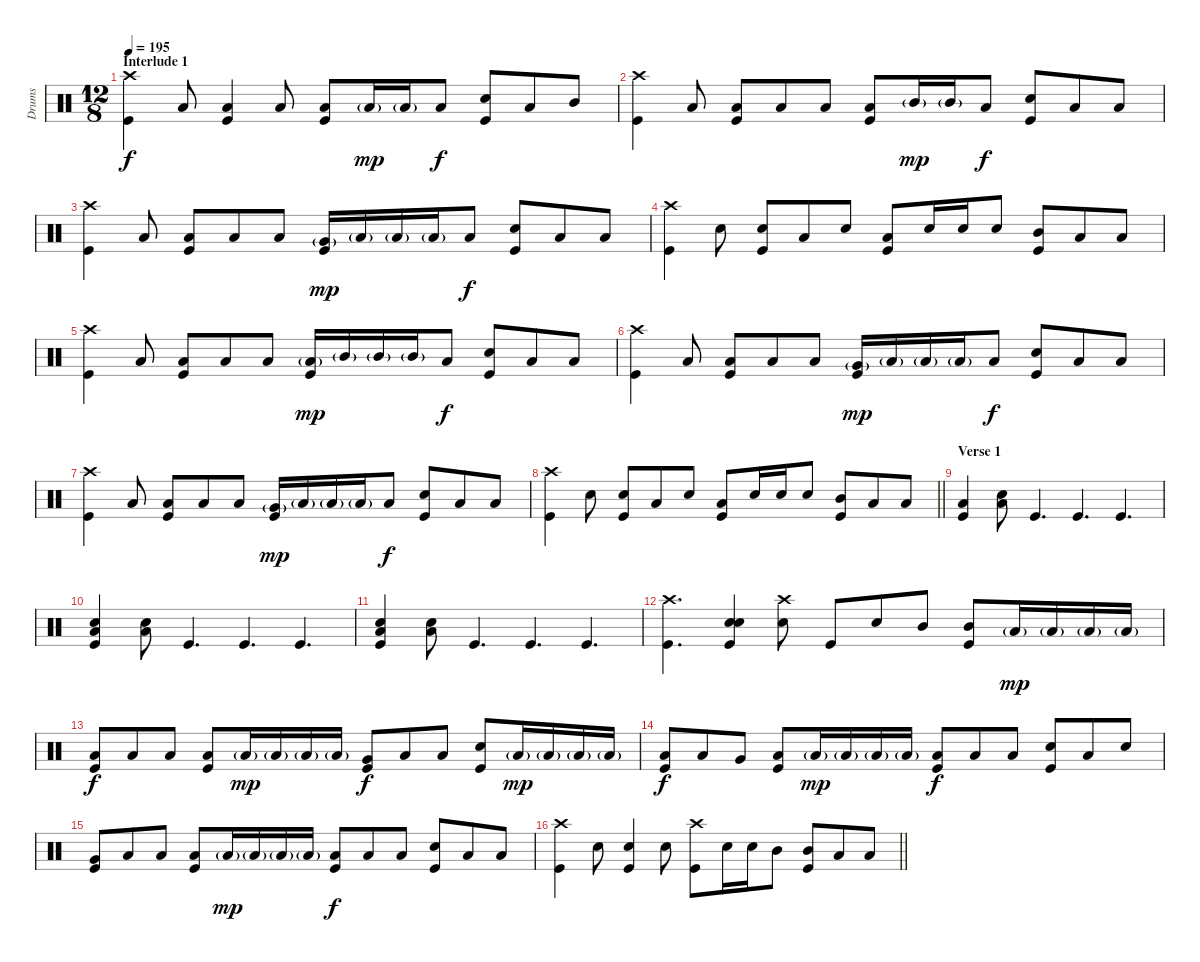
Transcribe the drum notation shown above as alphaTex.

\track ("Drums" "Drums") {instrument percussion}
\staff {score}
\articulation defaults
\ts (12 8)
\section ("" "Interlude 1")
\tempo 195
\clef neutral
\ks c
("Crash high (hit)" "Kick (hit)").4{dy f} "Low Tom (hit)".8 ("Low Tom (hit)" "Kick (hit)").4 "Low Tom (hit)".8 ("Low Tom (hit)" "Kick (hit)").8 "Low Tom (hit)"{g}.16{dy mp} "Low Tom (hit)"{g}.16 "Low Tom (hit)".8{dy f} ("Snare (hit) 2" "Kick (hit)").8 "Low Tom (hit)".8 "Mid Tom (hit)".8 |
("Crash high (hit)" "Kick (hit)").4 "Low Tom (hit)".8 ("Low Tom (hit)" "Kick (hit)").8 "Low Tom (hit)".8 "Low Tom (hit)".8 ("Low Tom (hit)" "Kick (hit)").8 "Mid Tom (hit)"{g}.16{dy mp} "Mid Tom (hit)"{g}.16 "Low Tom (hit)".8{dy f} ("Snare (hit) 2" "Kick (hit)").8 "Low Tom (hit)".8 "Low Tom (hit)".8 |
("Crash high (hit)" "Kick (hit)").4 "Low Tom (hit)".8 ("Low Tom (hit)" "Kick (hit)").8 "Low Tom (hit)".8 "Low Tom (hit)".8 ("Very Low Tom (hit)"{g} "Kick (hit)").16{dy mp} "Low Tom (hit)"{g}.16 "Low Tom (hit)"{g}.16 "Low Tom (hit)"{g}.16 "Low Tom (hit)".8{dy f} ("Snare (hit) 2" "Kick (hit)").8 "Low Tom (hit)".8 "Low Tom (hit)".8 |
("Crash high (hit)" "Kick (hit)").4 "Snare (hit) 2".8 ("Snare (hit) 2" "Kick (hit)").8 "Low Tom (hit)".8 "Snare (hit) 2".8 ("Low Tom (hit)" "Kick (hit)").8 "Snare (hit) 2".16 "Snare (hit) 2".16 "Snare (hit) 2".8 ("Mid Tom (hit)" "Kick (hit)").8 "Low Tom (hit)".8 "Low Tom (hit)".8 |
("Crash high (hit)" "Kick (hit)").4 "Low Tom (hit)".8 ("Low Tom (hit)" "Kick (hit)").8 "Low Tom (hit)".8 "Low Tom (hit)".8 ("Low Tom (hit)"{g} "Kick (hit)").16{dy mp} "Mid Tom (hit)"{g}.16 "Mid Tom (hit)"{g}.16 "Mid Tom (hit)"{g}.16 "Low Tom (hit)".8{dy f} ("Snare (hit) 2" "Kick (hit)").8 "Low Tom (hit)".8 "Low Tom (hit)".8 |
("Crash high (hit)" "Kick (hit)").4 "Low Tom (hit)".8 ("Low Tom (hit)" "Kick (hit)").8 "Low Tom (hit)".8 "Low Tom (hit)".8 ("Very Low Tom (hit)"{g} "Kick (hit)").16{dy mp} "Low Tom (hit)"{g}.16 "Low Tom (hit)"{g}.16 "Low Tom (hit)"{g}.16 "Low Tom (hit)".8{dy f} ("Snare (hit) 2" "Kick (hit)").8 "Low Tom (hit)".8 "Low Tom (hit)".8 |
("Crash high (hit)" "Kick (hit)").4 "Low Tom (hit)".8 ("Low Tom (hit)" "Kick (hit)").8 "Low Tom (hit)".8 "Low Tom (hit)".8 ("Very Low Tom (hit)"{g} "Kick (hit)").16{dy mp} "Low Tom (hit)"{g}.16 "Low Tom (hit)"{g}.16 "Low Tom (hit)"{g}.16 "Low Tom (hit)".8{dy f} ("Snare (hit) 2" "Kick (hit)").8 "Low Tom (hit)".8 "Low Tom (hit)".8 |
\barLineRight lightlight
("Crash high (hit)" "Kick (hit)").4 "Snare (hit) 2".8 ("Snare (hit) 2" "Kick (hit)").8 "Low Tom (hit)".8 "Snare (hit) 2".8 ("Low Tom (hit)" "Kick (hit)").8 "Snare (hit) 2".16 "Snare (hit) 2".16 "Snare (hit) 2".8 ("Mid Tom (hit)" "Kick (hit)").8 "Low Tom (hit)".8 "Low Tom (hit)".8 |
\section ("" "Verse 1")
("Low Tom (hit)" "Kick (hit)").4 ("Low Tom (hit)" "Snare (hit) 2").8 "Kick (hit)".4{d} "Kick (hit)".4{d} "Kick (hit)".4{d} |
("Low Tom (hit)" "Snare (hit) 2" "Kick (hit)").4 ("Low Tom (hit)" "Snare (hit) 2").8 "Kick (hit)".4{d} "Kick (hit)".4{d} "Kick (hit)".4{d} |
("Low Tom (hit)" "Snare (hit) 2" "Kick (hit)").4 ("Low Tom (hit)" "Snare (hit) 2").8 "Kick (hit)".4{d} "Kick (hit)".4{d} "Kick (hit)".4{d} |
("Crash high (hit)" "Kick (hit)").4{d} ("Snare (hit) 2" "Snare (hit) 2" "Kick (hit)").4 ("Crash high (hit)" "Snare (hit) 2").8 "Kick (hit)".8 "Snare (hit) 2".8 "Mid Tom (hit)".8 ("Mid Tom (hit)" "Kick (hit)").8 "Low Tom (hit)"{g}.16{dy mp} "Low Tom (hit)"{g}.16 "Low Tom (hit)"{g}.16 "Low Tom (hit)"{g}.16 |
("Low Tom (hit)" "Kick (hit)").8{dy f} "Low Tom (hit)".8 "Low Tom (hit)".8 ("Low Tom (hit)" "Kick (hit)").8 "Low Tom (hit)"{g}.16{dy mp} "Low Tom (hit)"{g}.16 "Low Tom (hit)"{g}.16 "Low Tom (hit)"{g}.16 ("Very Low Tom (hit)" "Kick (hit)").8{dy f} "Low Tom (hit)".8 "Low Tom (hit)".8 ("Snare (hit) 2" "Kick (hit)").8 "Low Tom (hit)"{g}.16{dy mp} "Low Tom (hit)"{g}.16 "Low Tom (hit)"{g}.16 "Low Tom (hit)"{g}.16 |
("Low Tom (hit)" "Kick (hit)").8{dy f} "Low Tom (hit)".8 "Very Low Tom (hit)".8 ("Low Tom (hit)" "Kick (hit)").8 "Low Tom (hit)"{g}.16{dy mp} "Low Tom (hit)"{g}.16 "Low Tom (hit)"{g}.16 "Low Tom (hit)"{g}.16 ("Low Tom (hit)" "Kick (hit)").8{dy f} "Low Tom (hit)".8 "Low Tom (hit)".8 ("Snare (hit) 2" "Kick (hit)").8 "Low Tom (hit)".8 "Snare (hit) 2".8 |
("Very Low Tom (hit)" "Kick (hit)").8 "Low Tom (hit)".8 "Low Tom (hit)".8 ("Low Tom (hit)" "Kick (hit)").8 "Low Tom (hit)"{g}.16{dy mp} "Low Tom (hit)"{g}.16 "Low Tom (hit)"{g}.16 "Low Tom (hit)"{g}.16 ("Low Tom (hit)" "Kick (hit)").8{dy f} "Low Tom (hit)".8 "Low Tom (hit)".8 ("Snare (hit) 2" "Kick (hit)").8 "Low Tom (hit)".8 "Low Tom (hit)".8 |
\barLineRight lightlight
("Crash high (hit)" "Kick (hit)").4 "Snare (hit) 2".8 ("Snare (hit) 2" "Kick (hit)").4 "Snare (hit) 2".8 ("Crash high (hit)" "Kick (hit)").8 "Snare (hit) 2".16 "Snare (hit) 2".16 "Mid Tom (hit)".8 ("Mid Tom (hit)" "Kick (hit)").8 "Low Tom (hit)".8 "Low Tom (hit)".8
